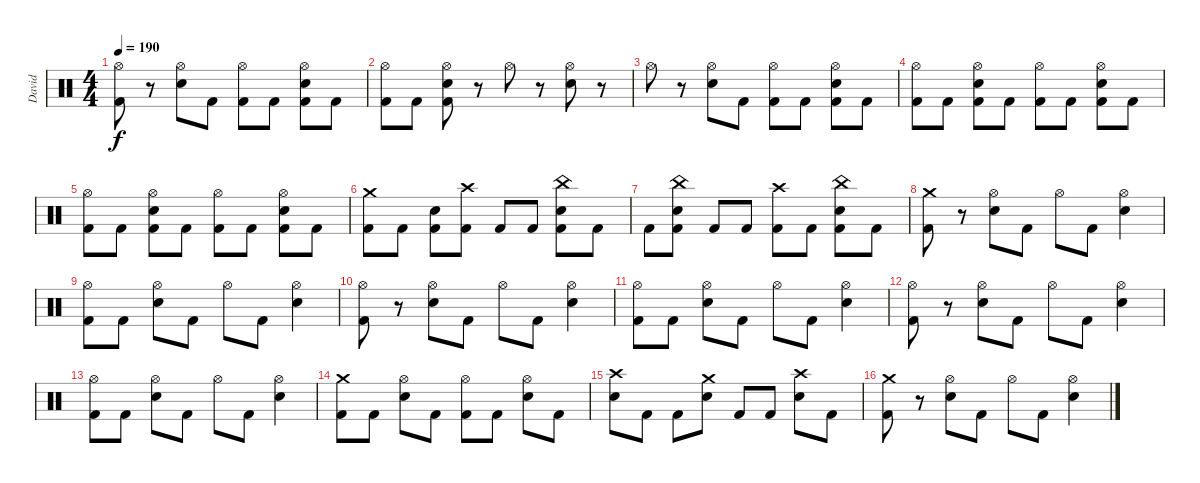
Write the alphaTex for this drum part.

\track ("David" "David") {instrument percussion}
\staff {score}
\articulation defaults
\ts (4 4)
\tempo 190
\clef neutral
\ks c
("Hi-Hat (open)" "Kick (hit) 2").8{dy f} r.8 ("Hi-Hat (open)" "Electric Snare (hit)").8 "Kick (hit) 2".8 ("Hi-Hat (open)" "Kick (hit) 2").8 "Kick (hit) 2".8 ("Hi-Hat (open)" "Electric Snare (hit)" "Kick (hit) 2").8 "Kick (hit) 2".8 |
("Hi-Hat (open)" "Kick (hit) 2").8 "Kick (hit) 2".8 ("Hi-Hat (open)" "Electric Snare (hit)" "Kick (hit) 2").8 r.8 "Hi-Hat (open)".8 r.8 ("Hi-Hat (open)" "Electric Snare (hit)").8 r.8 |
"Hi-Hat (open)".8 r.8 ("Hi-Hat (open)" "Electric Snare (hit)").8 "Kick (hit) 2".8 ("Hi-Hat (open)" "Kick (hit) 2").8 "Kick (hit) 2".8 ("Hi-Hat (open)" "Electric Snare (hit)" "Kick (hit) 2").8 "Kick (hit) 2".8 |
("Hi-Hat (open)" "Kick (hit) 2").8 "Kick (hit) 2".8 ("Hi-Hat (open)" "Electric Snare (hit)" "Kick (hit) 2").8 "Kick (hit) 2".8 ("Hi-Hat (open)" "Kick (hit) 2").8 "Kick (hit) 2".8 ("Hi-Hat (open)" "Electric Snare (hit)" "Kick (hit) 2").8 "Kick (hit) 2".8 |
("Hi-Hat (open)" "Kick (hit) 2").8 "Kick (hit) 2".8 ("Hi-Hat (open)" "Electric Snare (hit)" "Kick (hit) 2").8 "Kick (hit) 2".8 ("Hi-Hat (open)" "Kick (hit) 2").8 "Kick (hit) 2".8 ("Hi-Hat (open)" "Electric Snare (hit)" "Kick (hit) 2").8 "Kick (hit) 2".8 |
("Crash medium (hit)" "Kick (hit) 2").8 "Kick (hit) 2".8 ("Electric Snare (hit)" "Kick (hit) 2").8 ("Crash high (hit)" "Kick (hit) 2").8 "Kick (hit) 2".8 "Kick (hit) 2".8 ("China (hit)" "Electric Snare (hit)" "Kick (hit) 2").8 "Kick (hit) 2".8 |
"Kick (hit) 2".8 ("China (hit)" "Electric Snare (hit)" "Kick (hit) 2").8 "Kick (hit) 2".8 "Kick (hit) 2".8 ("Crash high (hit)" "Kick (hit) 2").8 "Kick (hit) 2".8 ("China (hit)" "Electric Snare (hit)" "Kick (hit) 2").8 "Kick (hit) 2".8 |
("Crash medium (hit)" "Kick (hit) 2").8 r.8 ("Hi-Hat (open)" "Electric Snare (hit)").8 "Kick (hit) 2".8 "Hi-Hat (open)".8 "Kick (hit) 2".8 ("Hi-Hat (open)" "Electric Snare (hit)").4 |
("Hi-Hat (open)" "Kick (hit) 2").8 "Kick (hit) 2".8 ("Hi-Hat (open)" "Electric Snare (hit)").8 "Kick (hit) 2".8 "Hi-Hat (open)".8 "Kick (hit) 2".8 ("Hi-Hat (open)" "Electric Snare (hit)").4 |
("Hi-Hat (open)" "Kick (hit) 2").8 r.8 ("Hi-Hat (open)" "Electric Snare (hit)").8 "Kick (hit) 2".8 "Hi-Hat (open)".8 "Kick (hit) 2".8 ("Hi-Hat (open)" "Electric Snare (hit)").4 |
("Hi-Hat (open)" "Kick (hit) 2").8 "Kick (hit) 2".8 ("Hi-Hat (open)" "Electric Snare (hit)").8 "Kick (hit) 2".8 "Hi-Hat (open)".8 "Kick (hit) 2".8 ("Hi-Hat (open)" "Electric Snare (hit)").4 |
("Hi-Hat (open)" "Kick (hit) 2").8 r.8 ("Hi-Hat (open)" "Electric Snare (hit)").8 "Kick (hit) 2".8 "Hi-Hat (open)".8 "Kick (hit) 2".8 ("Hi-Hat (open)" "Electric Snare (hit)").4 |
("Hi-Hat (open)" "Kick (hit) 2").8 "Kick (hit) 2".8 ("Hi-Hat (open)" "Electric Snare (hit)").8 "Kick (hit) 2".8 "Hi-Hat (open)".8 "Kick (hit) 2".8 ("Hi-Hat (open)" "Electric Snare (hit)").4 |
("Crash medium (hit)" "Kick (hit) 2").8 "Kick (hit) 2".8 ("Hi-Hat (open)" "Electric Snare (hit)").8 "Kick (hit) 2".8 ("Hi-Hat (open)" "Kick (hit) 2").8 "Kick (hit) 2".8 ("Hi-Hat (open)" "Electric Snare (hit)").8 "Kick (hit) 2".8 |
("Crash high (hit)" "Electric Snare (hit)").8 "Kick (hit) 2".8 "Kick (hit) 2".8 ("Crash medium (hit)" "Electric Snare (hit)").8 "Kick (hit) 2".8 "Kick (hit) 2".8 ("Crash high (hit)" "Electric Snare (hit)").8 "Kick (hit) 2".8 |
("Crash medium (hit)" "Kick (hit) 2").8 r.8 ("Hi-Hat (open)" "Electric Snare (hit)").8 "Kick (hit) 2".8 "Hi-Hat (open)".8 "Kick (hit) 2".8 ("Hi-Hat (open)" "Electric Snare (hit)").4
